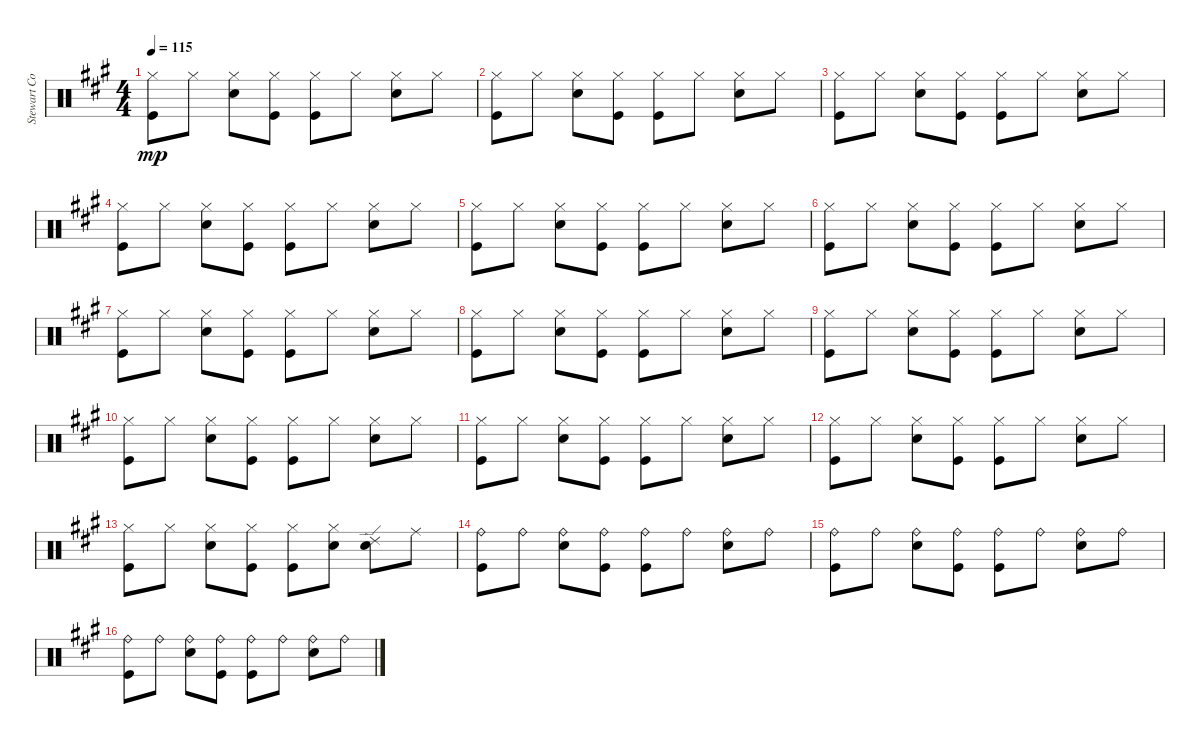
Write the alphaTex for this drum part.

\track ("Stewart Copeland" "Stewart Co") {instrument percussion}
\staff {score}
\articulation defaults
\ts (4 4)
\tempo 115
\clef neutral
\ks a
("Kick (hit)" "Hi-Hat (closed)").8{dy mp} "Hi-Hat (closed)".8 ("Snare (hit) 2" "Hi-Hat (closed)").8 ("Kick (hit)" "Hi-Hat (closed)").8 ("Kick (hit)" "Hi-Hat (closed)").8 "Hi-Hat (closed)".8 ("Snare (hit) 2" "Hi-Hat (closed)").8 "Hi-Hat (closed)".8 |
("Kick (hit)" "Hi-Hat (closed)").8 "Hi-Hat (closed)".8 ("Snare (hit) 2" "Hi-Hat (closed)").8 ("Kick (hit)" "Hi-Hat (closed)").8 ("Kick (hit)" "Hi-Hat (closed)").8 "Hi-Hat (closed)".8 ("Snare (hit) 2" "Hi-Hat (closed)").8 "Hi-Hat (closed)".8 |
("Kick (hit)" "Hi-Hat (closed)").8 "Hi-Hat (closed)".8 ("Snare (hit) 2" "Hi-Hat (closed)").8 ("Kick (hit)" "Hi-Hat (closed)").8 ("Kick (hit)" "Hi-Hat (closed)").8 "Hi-Hat (closed)".8 ("Snare (hit) 2" "Hi-Hat (closed)").8 "Hi-Hat (closed)".8 |
("Kick (hit)" "Hi-Hat (closed)").8 "Hi-Hat (closed)".8 ("Snare (hit) 2" "Hi-Hat (closed)").8 ("Kick (hit)" "Hi-Hat (closed)").8 ("Kick (hit)" "Hi-Hat (closed)").8 "Hi-Hat (closed)".8 ("Snare (hit) 2" "Hi-Hat (closed)").8 "Hi-Hat (closed)".8 |
("Kick (hit)" "Hi-Hat (closed)").8 "Hi-Hat (closed)".8 ("Snare (hit) 2" "Hi-Hat (closed)").8 ("Kick (hit)" "Hi-Hat (closed)").8 ("Kick (hit)" "Hi-Hat (closed)").8 "Hi-Hat (closed)".8 ("Snare (hit) 2" "Hi-Hat (closed)").8 "Hi-Hat (closed)".8 |
("Kick (hit)" "Hi-Hat (closed)").8 "Hi-Hat (closed)".8 ("Snare (hit) 2" "Hi-Hat (closed)").8 ("Kick (hit)" "Hi-Hat (closed)").8 ("Kick (hit)" "Hi-Hat (closed)").8 "Hi-Hat (closed)".8 ("Snare (hit) 2" "Hi-Hat (closed)").8 "Hi-Hat (closed)".8 |
("Kick (hit)" "Hi-Hat (closed)").8 "Hi-Hat (closed)".8 ("Snare (hit) 2" "Hi-Hat (closed)").8 ("Kick (hit)" "Hi-Hat (closed)").8 ("Kick (hit)" "Hi-Hat (closed)").8 "Hi-Hat (closed)".8 ("Snare (hit) 2" "Hi-Hat (closed)").8 "Hi-Hat (closed)".8 |
("Kick (hit)" "Hi-Hat (closed)").8 "Hi-Hat (closed)".8 ("Snare (hit) 2" "Hi-Hat (closed)").8 ("Kick (hit)" "Hi-Hat (closed)").8 ("Kick (hit)" "Hi-Hat (closed)").8 "Hi-Hat (closed)".8 ("Snare (hit) 2" "Hi-Hat (closed)").8 "Hi-Hat (closed)".8 |
("Kick (hit)" "Hi-Hat (closed)").8 "Hi-Hat (closed)".8 ("Snare (hit) 2" "Hi-Hat (closed)").8 ("Kick (hit)" "Hi-Hat (closed)").8 ("Kick (hit)" "Hi-Hat (closed)").8 "Hi-Hat (closed)".8 ("Snare (hit) 2" "Hi-Hat (closed)").8 "Hi-Hat (closed)".8 |
("Kick (hit)" "Hi-Hat (closed)").8 "Hi-Hat (closed)".8 ("Snare (hit) 2" "Hi-Hat (closed)").8 ("Kick (hit)" "Hi-Hat (closed)").8 ("Kick (hit)" "Hi-Hat (closed)").8 "Hi-Hat (closed)".8 ("Snare (hit) 2" "Hi-Hat (closed)").8 "Hi-Hat (closed)".8 |
("Kick (hit)" "Hi-Hat (closed)").8 "Hi-Hat (closed)".8 ("Snare (hit) 2" "Hi-Hat (closed)").8 ("Kick (hit)" "Hi-Hat (closed)").8 ("Kick (hit)" "Hi-Hat (closed)").8 "Hi-Hat (closed)".8 ("Snare (hit) 2" "Hi-Hat (closed)").8 "Hi-Hat (closed)".8 |
("Kick (hit)" "Hi-Hat (closed)").8 "Hi-Hat (closed)".8 ("Snare (hit) 2" "Hi-Hat (closed)").8 ("Kick (hit)" "Hi-Hat (closed)").8 ("Kick (hit)" "Hi-Hat (closed)").8 "Hi-Hat (closed)".8 ("Snare (hit) 2" "Hi-Hat (closed)").8 "Hi-Hat (closed)".8 |
("Kick (hit)" "Hi-Hat (closed)").8 "Hi-Hat (closed)".8 ("Snare (hit) 2" "Hi-Hat (closed)").8 ("Kick (hit)" "Hi-Hat (closed)").8 ("Kick (hit)" "Hi-Hat (closed)").8 ("Snare (hit) 2" "Hi-Hat (closed)").8 ("Snare (hit) 2" "Ride (edge) 2").8 "Ride (middle)".8 |
("Kick (hit)" "Ride (bell)").8 "Ride (bell)".8 ("Snare (hit) 2" "Ride (bell)").8 ("Kick (hit)" "Ride (bell)").8 ("Kick (hit)" "Ride (bell)").8 "Ride (bell)".8 ("Snare (hit) 2" "Ride (bell)").8 "Ride (bell)".8 |
("Kick (hit)" "Ride (bell)").8 "Ride (bell)".8 ("Snare (hit) 2" "Ride (bell)").8 ("Kick (hit)" "Ride (bell)").8 ("Kick (hit)" "Ride (bell)").8 "Ride (bell)".8 ("Snare (hit) 2" "Ride (bell)").8 "Ride (bell)".8 |
("Kick (hit)" "Ride (bell)").8 "Ride (bell)".8 ("Snare (hit) 2" "Ride (bell)").8 ("Kick (hit)" "Ride (bell)").8 ("Kick (hit)" "Ride (bell)").8 "Ride (bell)".8 ("Snare (hit) 2" "Ride (bell)").8 "Ride (bell)".8
